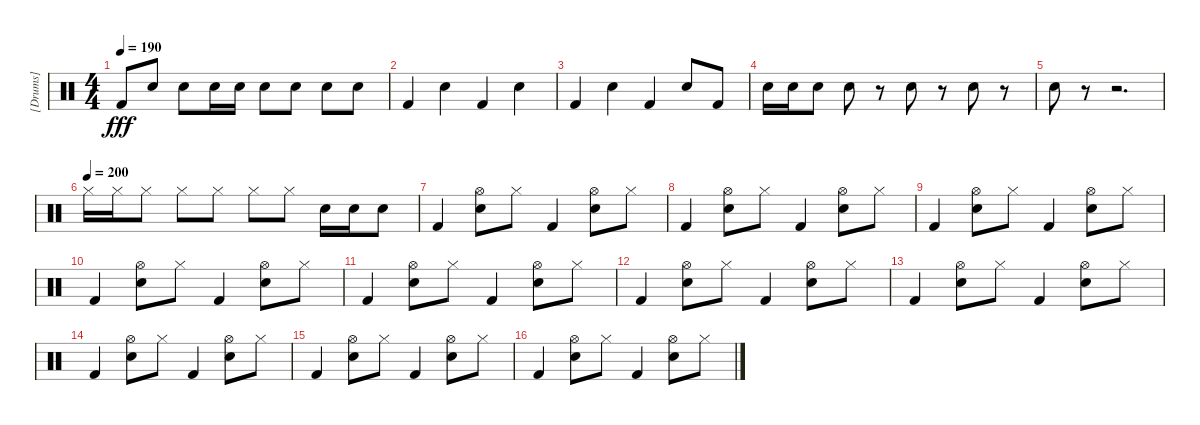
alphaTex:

\track ("[Drums]" "[Drums]") {instrument percussion}
\staff {score}
\articulation defaults
\ts (4 4)
\tempo 190
\clef neutral
\ks c "Kick (hit) 2".8{dy fff} "Electric Snare (hit)".8 "Electric Snare (hit)".8 "Electric Snare (hit)".16 "Electric Snare (hit)".16 "Electric Snare (hit)".8 "Electric Snare (hit)".8 "Electric Snare (hit)".8 "Electric Snare (hit)".8
|
"Kick (hit) 2".4 "Electric Snare (hit)".4 "Kick (hit) 2".4 "Electric Snare (hit)".4 |
"Kick (hit) 2".4 "Electric Snare (hit)".4 "Kick (hit) 2".4 "Electric Snare (hit)".8 "Kick (hit) 2".8 |
"Electric Snare (hit)".16 "Electric Snare (hit)".16 "Electric Snare (hit)".8 "Electric Snare (hit)".8 r.8 "Electric Snare (hit)".8 r.8 "Electric Snare (hit)".8 r.8 |
"Electric Snare (hit)".8 r.8 r.2{d} |
\tempo (200)
"Hi-Hat (closed)".16 "Hi-Hat (closed)".16 "Hi-Hat (closed)".8 "Hi-Hat (closed)".8 "Hi-Hat (closed)".8 "Hi-Hat (closed)".8 "Hi-Hat (closed)".8 "Electric Snare (hit)".16 "Electric Snare (hit)".16 "Electric Snare (hit)".8 |
"Kick (hit) 2".4 ("Hi-Hat (open)" "Electric Snare (hit)").8 "Hi-Hat (closed)".8 "Kick (hit) 2".4 ("Hi-Hat (open)" "Electric Snare (hit)").8 "Hi-Hat (closed)".8 |
"Kick (hit) 2".4 ("Hi-Hat (open)" "Electric Snare (hit)").8 "Hi-Hat (closed)".8 "Kick (hit) 2".4 ("Hi-Hat (open)" "Electric Snare (hit)").8 "Hi-Hat (closed)".8 |
"Kick (hit) 2".4 ("Hi-Hat (open)" "Electric Snare (hit)").8 "Hi-Hat (closed)".8 "Kick (hit) 2".4 ("Hi-Hat (open)" "Electric Snare (hit)").8 "Hi-Hat (closed)".8 |
"Kick (hit) 2".4 ("Hi-Hat (open)" "Electric Snare (hit)").8 "Hi-Hat (closed)".8 "Kick (hit) 2".4 ("Hi-Hat (open)" "Electric Snare (hit)").8 "Hi-Hat (closed)".8 |
"Kick (hit) 2".4 ("Hi-Hat (open)" "Electric Snare (hit)").8 "Hi-Hat (closed)".8 "Kick (hit) 2".4 ("Hi-Hat (open)" "Electric Snare (hit)").8 "Hi-Hat (closed)".8 |
"Kick (hit) 2".4 ("Hi-Hat (open)" "Electric Snare (hit)").8 "Hi-Hat (closed)".8 "Kick (hit) 2".4 ("Hi-Hat (open)" "Electric Snare (hit)").8 "Hi-Hat (closed)".8 |
"Kick (hit) 2".4 ("Hi-Hat (open)" "Electric Snare (hit)").8 "Hi-Hat (closed)".8 "Kick (hit) 2".4 ("Hi-Hat (open)" "Electric Snare (hit)").8 "Hi-Hat (closed)".8 |
"Kick (hit) 2".4 ("Hi-Hat (open)" "Electric Snare (hit)").8 "Hi-Hat (closed)".8 "Kick (hit) 2".4 ("Hi-Hat (open)" "Electric Snare (hit)").8 "Hi-Hat (closed)".8 |
"Kick (hit) 2".4 ("Hi-Hat (open)" "Electric Snare (hit)").8 "Hi-Hat (closed)".8 "Kick (hit) 2".4 ("Hi-Hat (open)" "Electric Snare (hit)").8 "Hi-Hat (closed)".8 |
"Kick (hit) 2".4 ("Hi-Hat (open)" "Electric Snare (hit)").8 "Hi-Hat (closed)".8 "Kick (hit) 2".4 ("Hi-Hat (open)" "Electric Snare (hit)").8 "Hi-Hat (closed)".8
